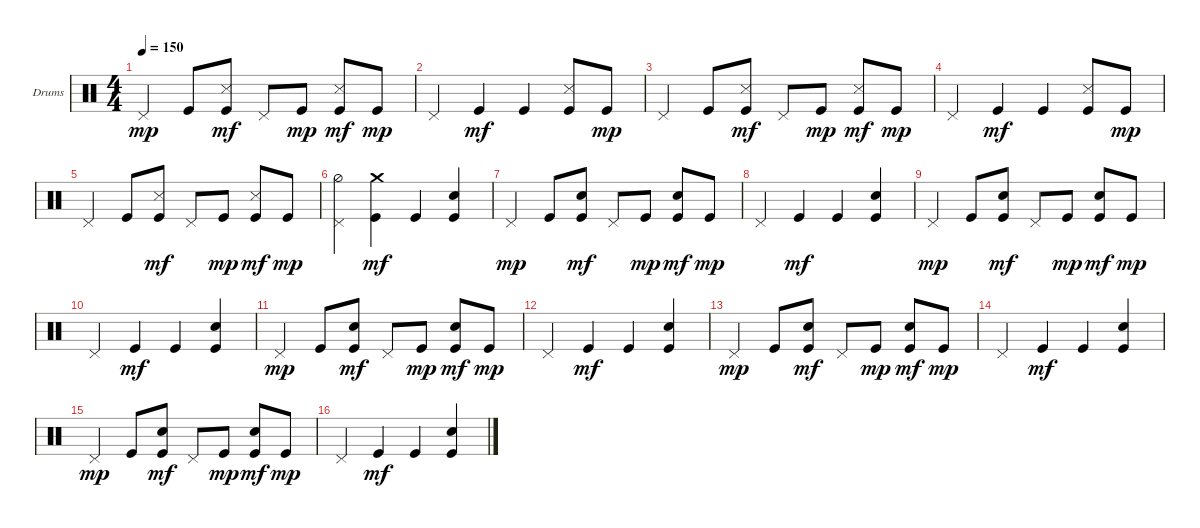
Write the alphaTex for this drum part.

\defaultSystemsLayout 4
\bracketExtendMode groupsimilarinstruments
\firstSystemTrackNameOrientation horizontal
\otherSystemsTrackNameOrientation horizontal
\track ("Е. Кулаков" "Drums") {instrument percussion}
\staff {score}
\articulation defaults
\ts (4 4)
\tempo 150
\clef neutral
\ks c "Pedal Hi-Hat (hit)".4{dy mp} "Kick (hit)".8
("Kick (hit)" "Snare (side stick) 3").8{dy mf} "Pedal Hi-Hat (hit)".8 "Kick (hit)".8{dy mp} ("Kick (hit)" "Snare (side stick) 3").8{dy mf} "Kick (hit)".8{dy mp} |
"Pedal Hi-Hat (hit)".4 "Kick (hit)".4{dy mf} "Kick (hit)".4 ("Kick (hit)" "Snare (side stick) 3").8 "Kick (hit)".8{dy mp} |
"Pedal Hi-Hat (hit)".4 "Kick (hit)".8 ("Kick (hit)" "Snare (side stick) 3").8{dy mf} "Pedal Hi-Hat (hit)".8 "Kick (hit)".8{dy mp} ("Kick (hit)" "Snare (side stick) 3").8{dy mf} "Kick (hit)".8{dy mp} |
"Pedal Hi-Hat (hit)".4 "Kick (hit)".4{dy mf} "Kick (hit)".4 ("Kick (hit)" "Snare (side stick) 3").8 "Kick (hit)".8{dy mp} |
"Pedal Hi-Hat (hit)".4 "Kick (hit)".8 ("Kick (hit)" "Snare (side stick) 3").8{dy mf} "Pedal Hi-Hat (hit)".8 "Kick (hit)".8{dy mp} ("Kick (hit)" "Snare (side stick) 3").8{dy mf} "Kick (hit)".8{dy mp} |
("Pedal Hi-Hat (hit)" "Hi-Hat (half)").4 ("Kick (hit)" "Crash medium (hit)").4{dy mf} "Kick (hit)".4 ("Snare (hit) 2" "Kick (hit)").4 |
"Pedal Hi-Hat (hit)".4{dy mp} "Kick (hit)".8 ("Kick (hit)" "Snare (hit) 2").8{dy mf} "Pedal Hi-Hat (hit)".8 "Kick (hit)".8{dy mp} ("Kick (hit)" "Snare (hit) 2").8{dy mf} "Kick (hit)".8{dy mp} |
"Pedal Hi-Hat (hit)".4 "Kick (hit)".4{dy mf} "Kick (hit)".4 ("Snare (hit) 2" "Kick (hit)").4 |
"Pedal Hi-Hat (hit)".4{dy mp} "Kick (hit)".8 ("Kick (hit)" "Snare (hit) 2").8{dy mf} "Pedal Hi-Hat (hit)".8 "Kick (hit)".8{dy mp} ("Kick (hit)" "Snare (hit) 2").8{dy mf} "Kick (hit)".8{dy mp} |
"Pedal Hi-Hat (hit)".4 "Kick (hit)".4{dy mf} "Kick (hit)".4 ("Snare (hit) 2" "Kick (hit)").4 |
"Pedal Hi-Hat (hit)".4{dy mp} "Kick (hit)".8 ("Kick (hit)" "Snare (hit) 2").8{dy mf} "Pedal Hi-Hat (hit)".8 "Kick (hit)".8{dy mp} ("Kick (hit)" "Snare (hit) 2").8{dy mf} "Kick (hit)".8{dy mp} |
"Pedal Hi-Hat (hit)".4 "Kick (hit)".4{dy mf} "Kick (hit)".4 ("Snare (hit) 2" "Kick (hit)").4 |
"Pedal Hi-Hat (hit)".4{dy mp} "Kick (hit)".8 ("Kick (hit)" "Snare (hit) 2").8{dy mf} "Pedal Hi-Hat (hit)".8 "Kick (hit)".8{dy mp} ("Kick (hit)" "Snare (hit) 2").8{dy mf} "Kick (hit)".8{dy mp} |
"Pedal Hi-Hat (hit)".4 "Kick (hit)".4{dy mf} "Kick (hit)".4 ("Snare (hit) 2" "Kick (hit)").4 |
"Pedal Hi-Hat (hit)".4{dy mp} "Kick (hit)".8 ("Kick (hit)" "Snare (hit) 2").8{dy mf} "Pedal Hi-Hat (hit)".8 "Kick (hit)".8{dy mp} ("Kick (hit)" "Snare (hit) 2").8{dy mf} "Kick (hit)".8{dy mp} |
"Pedal Hi-Hat (hit)".4 "Kick (hit)".4{dy mf} "Kick (hit)".4 ("Snare (hit) 2" "Kick (hit)").4
